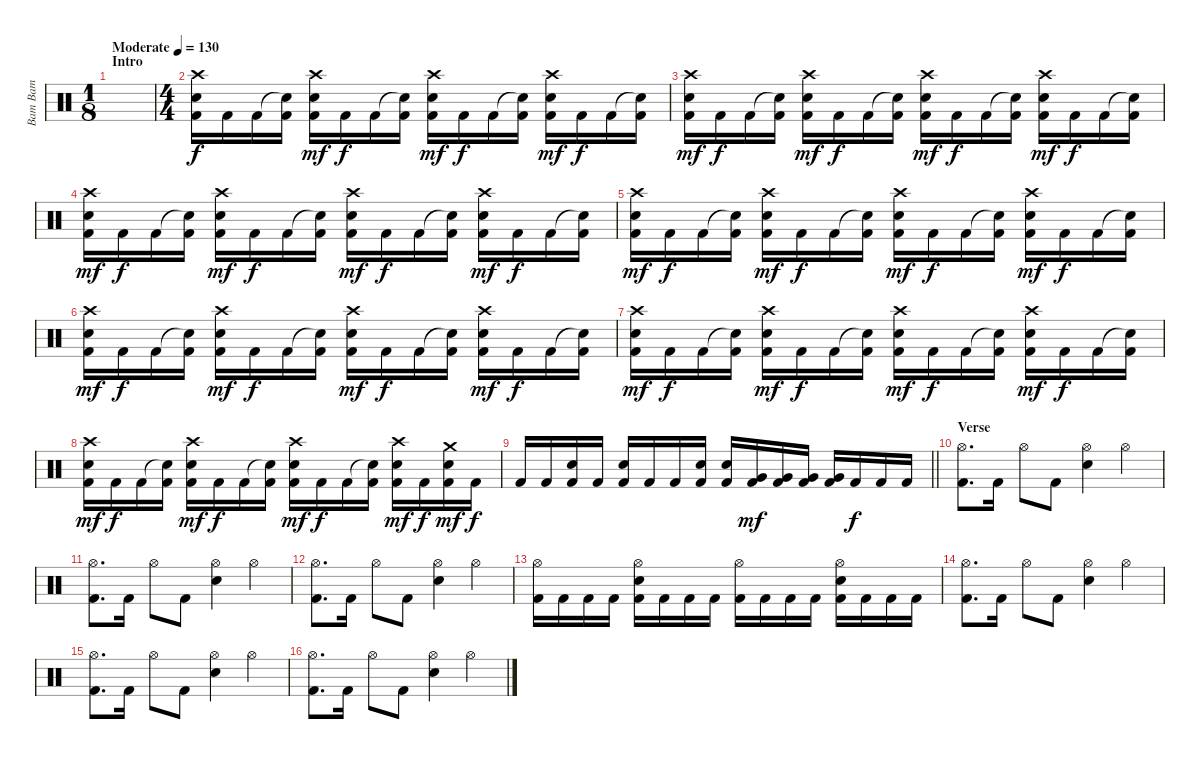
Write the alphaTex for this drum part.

\track ("Bam Bam" "Bam Bam") {instrument percussion}
\staff {score}
\articulation defaults
\ts (1 8)
\section ("" "Intro")
\tempo (130 "Moderate")
\clef neutral
\ks c
|
\ts (4 4)
("Crash high (hit)" "Electric Snare (hit)" "Kick (hit) 2").16 "Kick (hit) 2".16{dy f} "Kick (hit) 2".16 ("Snare (hit)"{t} "Kick (hit) 2").16 ("Crash high (hit)" "Electric Snare (hit)" "Kick (hit) 2").16{dy mf} "Kick (hit) 2".16{dy f} "Kick (hit) 2".16 ("Snare (hit)"{t} "Kick (hit) 2").16 ("Crash high (hit)" "Electric Snare (hit)" "Kick (hit) 2").16{dy mf} "Kick (hit) 2".16{dy f} "Kick (hit) 2".16 ("Snare (hit)"{t} "Kick (hit) 2").16 ("Crash high (hit)" "Electric Snare (hit)" "Kick (hit) 2").16{dy mf} "Kick (hit) 2".16{dy f} "Kick (hit) 2".16 ("Snare (hit)"{t} "Kick (hit) 2").16 |
("Crash high (hit)" "Electric Snare (hit)" "Kick (hit) 2").16{dy mf} "Kick (hit) 2".16{dy f} "Kick (hit) 2".16 ("Snare (hit)"{t} "Kick (hit) 2").16 ("Crash high (hit)" "Electric Snare (hit)" "Kick (hit) 2").16{dy mf} "Kick (hit) 2".16{dy f} "Kick (hit) 2".16 ("Snare (hit)"{t} "Kick (hit) 2").16 ("Crash high (hit)" "Electric Snare (hit)" "Kick (hit) 2").16{dy mf} "Kick (hit) 2".16{dy f} "Kick (hit) 2".16 ("Snare (hit)"{t} "Kick (hit) 2").16 ("Crash high (hit)" "Electric Snare (hit)" "Kick (hit) 2").16{dy mf} "Kick (hit) 2".16{dy f} "Kick (hit) 2".16 ("Snare (hit)"{t} "Kick (hit) 2").16 |
("Crash high (hit)" "Electric Snare (hit)" "Kick (hit) 2").16{dy mf} "Kick (hit) 2".16{dy f} "Kick (hit) 2".16 ("Snare (hit)"{t} "Kick (hit) 2").16 ("Crash high (hit)" "Electric Snare (hit)" "Kick (hit) 2").16{dy mf} "Kick (hit) 2".16{dy f} "Kick (hit) 2".16 ("Snare (hit)"{t} "Kick (hit) 2").16 ("Crash high (hit)" "Electric Snare (hit)" "Kick (hit) 2").16{dy mf} "Kick (hit) 2".16{dy f} "Kick (hit) 2".16 ("Snare (hit)"{t} "Kick (hit) 2").16 ("Crash high (hit)" "Electric Snare (hit)" "Kick (hit) 2").16{dy mf} "Kick (hit) 2".16{dy f} "Kick (hit) 2".16 ("Snare (hit)"{t} "Kick (hit) 2").16 |
("Crash high (hit)" "Electric Snare (hit)" "Kick (hit) 2").16{dy mf} "Kick (hit) 2".16{dy f} "Kick (hit) 2".16 ("Snare (hit)"{t} "Kick (hit) 2").16 ("Crash high (hit)" "Electric Snare (hit)" "Kick (hit) 2").16{dy mf} "Kick (hit) 2".16{dy f} "Kick (hit) 2".16 ("Snare (hit)"{t} "Kick (hit) 2").16 ("Crash high (hit)" "Electric Snare (hit)" "Kick (hit) 2").16{dy mf} "Kick (hit) 2".16{dy f} "Kick (hit) 2".16 ("Snare (hit)"{t} "Kick (hit) 2").16 ("Crash high (hit)" "Electric Snare (hit)" "Kick (hit) 2").16{dy mf} "Kick (hit) 2".16{dy f} "Kick (hit) 2".16 ("Snare (hit)"{t} "Kick (hit) 2").16 |
("Crash high (hit)" "Electric Snare (hit)" "Kick (hit) 2").16{dy mf} "Kick (hit) 2".16{dy f} "Kick (hit) 2".16 ("Snare (hit)"{t} "Kick (hit) 2").16 ("Crash high (hit)" "Electric Snare (hit)" "Kick (hit) 2").16{dy mf} "Kick (hit) 2".16{dy f} "Kick (hit) 2".16 ("Snare (hit)"{t} "Kick (hit) 2").16 ("Crash high (hit)" "Electric Snare (hit)" "Kick (hit) 2").16{dy mf} "Kick (hit) 2".16{dy f} "Kick (hit) 2".16 ("Snare (hit)"{t} "Kick (hit) 2").16 ("Crash high (hit)" "Electric Snare (hit)" "Kick (hit) 2").16{dy mf} "Kick (hit) 2".16{dy f} "Kick (hit) 2".16 ("Snare (hit)"{t} "Kick (hit) 2").16 |
("Crash high (hit)" "Electric Snare (hit)" "Kick (hit) 2").16{dy mf} "Kick (hit) 2".16{dy f} "Kick (hit) 2".16 ("Snare (hit)"{t} "Kick (hit) 2").16 ("Crash high (hit)" "Electric Snare (hit)" "Kick (hit) 2").16{dy mf} "Kick (hit) 2".16{dy f} "Kick (hit) 2".16 ("Snare (hit)"{t} "Kick (hit) 2").16 ("Crash high (hit)" "Electric Snare (hit)" "Kick (hit) 2").16{dy mf} "Kick (hit) 2".16{dy f} "Kick (hit) 2".16 ("Snare (hit)"{t} "Kick (hit) 2").16 ("Crash high (hit)" "Electric Snare (hit)" "Kick (hit) 2").16{dy mf} "Kick (hit) 2".16{dy f} "Kick (hit) 2".16 ("Snare (hit)"{t} "Kick (hit) 2").16 |
("Crash high (hit)" "Electric Snare (hit)" "Kick (hit) 2").16{dy mf} "Kick (hit) 2".16{dy f} "Kick (hit) 2".16 ("Snare (hit)"{t} "Kick (hit) 2").16 ("Crash high (hit)" "Electric Snare (hit)" "Kick (hit) 2").16{dy mf} "Kick (hit) 2".16{dy f} "Kick (hit) 2".16 ("Snare (hit)"{t} "Kick (hit) 2").16 ("Crash high (hit)" "Electric Snare (hit)" "Kick (hit) 2").16{dy mf} "Kick (hit) 2".16{dy f} "Kick (hit) 2".16 ("Snare (hit)"{t} "Kick (hit) 2").16 ("Crash high (hit)" "Electric Snare (hit)" "Kick (hit) 2").16{dy mf} "Kick (hit) 2".16{dy f} ("Crash medium (hit)" "Electric Snare (hit)" "Kick (hit) 2").16{dy mf} "Kick (hit) 2".16{dy f} |
\barLineRight lightlight "Kick (hit) 2".16 "Kick (hit) 2".16
("Electric Snare (hit)" "Kick (hit) 2").16 "Kick (hit) 2".16 ("Electric Snare (hit)" "Kick (hit) 2").16 "Kick (hit) 2".16 "Kick (hit) 2".16 ("Electric Snare (hit)" "Kick (hit) 2").16 ("Electric Snare (hit)" "Kick (hit) 2").16 ("Very Low Tom (hit)" "Kick (hit) 2").16{dy mf} ("Very Low Tom (hit)" "Kick (hit) 2").16 ("Very Low Tom (hit)" "Kick (hit) 2").16 ("Very Low Tom (hit)" "Kick (hit) 2").16 "Kick (hit) 2".16{dy f} "Kick (hit) 2".16 "Kick (hit) 2".16 |
\section ("" "Verse")
("Hi-Hat (open)" "Kick (hit) 2").8{d} "Kick (hit) 2".16 "Hi-Hat (open)".8 "Kick (hit) 2".8 ("Hi-Hat (open)" "Electric Snare (hit)").4 "Hi-Hat (open)".4 |
("Hi-Hat (open)" "Kick (hit) 2").8{d} "Kick (hit) 2".16 "Hi-Hat (open)".8 "Kick (hit) 2".8 ("Hi-Hat (open)" "Electric Snare (hit)").4 "Hi-Hat (open)".4 |
("Hi-Hat (open)" "Kick (hit) 2").8{d} "Kick (hit) 2".16 "Hi-Hat (open)".8 "Kick (hit) 2".8 ("Hi-Hat (open)" "Electric Snare (hit)").4 "Hi-Hat (open)".4 |
("Hi-Hat (open)" "Kick (hit) 2").16 "Kick (hit) 2".16 "Kick (hit) 2".16 "Kick (hit) 2".16 ("Hi-Hat (open)" "Electric Snare (hit)" "Kick (hit) 2").16 "Kick (hit) 2".16 "Kick (hit) 2".16 "Kick (hit) 2".16 ("Hi-Hat (open)" "Kick (hit) 2").16 "Kick (hit) 2".16 "Kick (hit) 2".16 "Kick (hit) 2".16 ("Hi-Hat (open)" "Electric Snare (hit)" "Kick (hit) 2").16 "Kick (hit) 2".16 "Kick (hit) 2".16 "Kick (hit) 2".16 |
("Hi-Hat (open)" "Kick (hit) 2").8{d} "Kick (hit) 2".16 "Hi-Hat (open)".8 "Kick (hit) 2".8 ("Hi-Hat (open)" "Electric Snare (hit)").4 "Hi-Hat (open)".4 |
("Hi-Hat (open)" "Kick (hit) 2").8{d} "Kick (hit) 2".16 "Hi-Hat (open)".8 "Kick (hit) 2".8 ("Hi-Hat (open)" "Electric Snare (hit)").4 "Hi-Hat (open)".4 |
("Hi-Hat (open)" "Kick (hit) 2").8{d} "Kick (hit) 2".16 "Hi-Hat (open)".8 "Kick (hit) 2".8 ("Hi-Hat (open)" "Electric Snare (hit)").4 "Hi-Hat (open)".4
